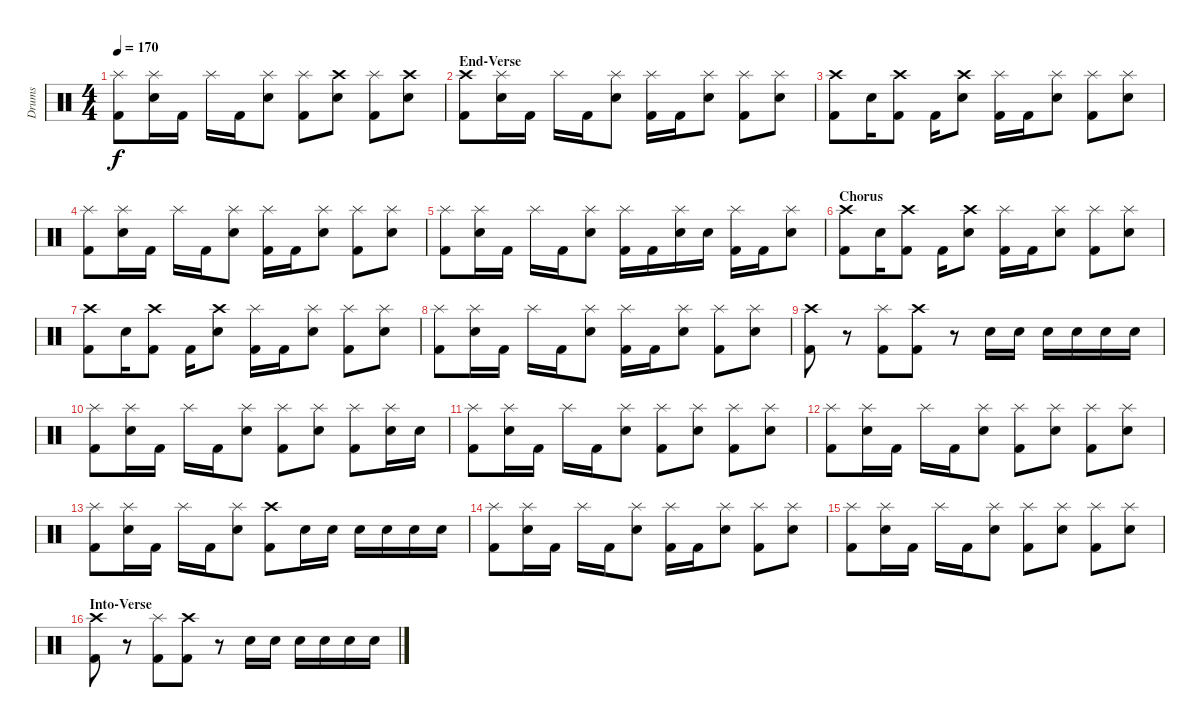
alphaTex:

\track ("Drums" "Drums") {instrument percussion}
\staff {score}
\articulation defaults
\ts (4 4)
\tempo 170
\clef neutral
\ks c
("Splash (hit)" "Kick (hit) 2").8{dy f} ("Splash (hit)" "Electric Snare (hit)").16 "Kick (hit) 2".16 "Splash (hit)".16 "Kick (hit) 2".16 ("Splash (hit)" "Electric Snare (hit)").8 ("Splash (hit)" "Kick (hit) 2").8 ("Crash high (hit)" "Electric Snare (hit)").8 ("Splash (hit)" "Kick (hit) 2").8 ("Crash high (hit)" "Electric Snare (hit)").8 |
\section ("" "End-Verse")
("Crash high (hit)" "Kick (hit) 2").8 ("Splash (hit)" "Electric Snare (hit)").16 "Kick (hit) 2".16 "Splash (hit)".16 "Kick (hit) 2".16 ("Splash (hit)" "Electric Snare (hit)").8 ("Splash (hit)" "Kick (hit) 2").16 "Kick (hit) 2".16 ("Splash (hit)" "Electric Snare (hit)").8 ("Splash (hit)" "Kick (hit) 2").8 ("Splash (hit)" "Electric Snare (hit)").8 |
("Crash high (hit)" "Kick (hit) 2").8 "Electric Snare (hit)".16 ("Crash high (hit)" "Kick (hit) 2").8 "Kick (hit) 2".16 ("Crash high (hit)" "Electric Snare (hit)").8 ("Splash (hit)" "Kick (hit) 2").16 "Kick (hit) 2".16 ("Splash (hit)" "Electric Snare (hit)").8 ("Splash (hit)" "Kick (hit) 2").8 ("Splash (hit)" "Electric Snare (hit)").8 |
("Splash (hit)" "Kick (hit) 2").8 ("Splash (hit)" "Electric Snare (hit)").16 "Kick (hit) 2".16 "Splash (hit)".16 "Kick (hit) 2".16 ("Splash (hit)" "Electric Snare (hit)").8 ("Splash (hit)" "Kick (hit) 2").16 "Kick (hit) 2".16 ("Splash (hit)" "Electric Snare (hit)").8 ("Splash (hit)" "Kick (hit) 2").8 ("Splash (hit)" "Electric Snare (hit)").8 |
("Splash (hit)" "Kick (hit) 2").8 ("Splash (hit)" "Electric Snare (hit)").16 "Kick (hit) 2".16 "Splash (hit)".16 "Kick (hit) 2".16 ("Splash (hit)" "Electric Snare (hit)").8 ("Splash (hit)" "Kick (hit) 2").16 "Kick (hit) 2".16 ("Splash (hit)" "Electric Snare (hit)").16 "Electric Snare (hit)".16 ("Splash (hit)" "Kick (hit) 2").16 "Kick (hit) 2".16 ("Splash (hit)" "Electric Snare (hit)").8 |
\section ("" "Chorus")
("Crash high (hit)" "Kick (hit) 2").8 "Electric Snare (hit)".16 ("Crash high (hit)" "Kick (hit) 2").8 "Kick (hit) 2".16 ("Crash high (hit)" "Electric Snare (hit)").8 ("Splash (hit)" "Kick (hit) 2").16 "Kick (hit) 2".16 ("Splash (hit)" "Electric Snare (hit)").8 ("Splash (hit)" "Kick (hit) 2").8 ("Splash (hit)" "Electric Snare (hit)").8 |
("Crash high (hit)" "Kick (hit) 2").8 "Electric Snare (hit)".16 ("Crash high (hit)" "Kick (hit) 2").8 "Kick (hit) 2".16 ("Crash high (hit)" "Electric Snare (hit)").8 ("Splash (hit)" "Kick (hit) 2").16 "Kick (hit) 2".16 ("Splash (hit)" "Electric Snare (hit)").8 ("Splash (hit)" "Kick (hit) 2").8 ("Splash (hit)" "Electric Snare (hit)").8 |
("Splash (hit)" "Kick (hit) 2").8 ("Splash (hit)" "Electric Snare (hit)").16 "Kick (hit) 2".16 "Splash (hit)".16 "Kick (hit) 2".16 ("Splash (hit)" "Electric Snare (hit)").8 ("Splash (hit)" "Kick (hit) 2").16 "Kick (hit) 2".16 ("Splash (hit)" "Electric Snare (hit)").8 ("Splash (hit)" "Kick (hit) 2").8 ("Splash (hit)" "Electric Snare (hit)").8 |
("Crash high (hit)" "Kick (hit) 2").8 r.8 ("Splash (hit)" "Kick (hit) 2").8 ("Crash high (hit)" "Kick (hit) 2").8 r.8 "Electric Snare (hit)".16 "Electric Snare (hit)".16 "Electric Snare (hit)".16 "Electric Snare (hit)".16 "Electric Snare (hit)".16 "Electric Snare (hit)".16 |
("Splash (hit)" "Kick (hit) 2").8 ("Splash (hit)" "Electric Snare (hit)").16 "Kick (hit) 2".16 "Splash (hit)".16 "Kick (hit) 2".16 ("Splash (hit)" "Electric Snare (hit)").8 ("Splash (hit)" "Kick (hit) 2").8 ("Splash (hit)" "Electric Snare (hit)").8 ("Splash (hit)" "Kick (hit) 2").8 ("Splash (hit)" "Electric Snare (hit)").16 "Electric Snare (hit)".16 |
("Splash (hit)" "Kick (hit) 2").8 ("Splash (hit)" "Electric Snare (hit)").16 "Kick (hit) 2".16 "Splash (hit)".16 "Kick (hit) 2".16 ("Splash (hit)" "Electric Snare (hit)").8 ("Splash (hit)" "Kick (hit) 2").8 ("Splash (hit)" "Electric Snare (hit)").8 ("Splash (hit)" "Kick (hit) 2").8 ("Splash (hit)" "Electric Snare (hit)").8 |
("Splash (hit)" "Kick (hit) 2").8 ("Splash (hit)" "Electric Snare (hit)").16 "Kick (hit) 2".16 "Splash (hit)".16 "Kick (hit) 2".16 ("Splash (hit)" "Electric Snare (hit)").8 ("Splash (hit)" "Kick (hit) 2").8 ("Splash (hit)" "Electric Snare (hit)").8 ("Splash (hit)" "Kick (hit) 2").8 ("Splash (hit)" "Electric Snare (hit)").8 |
("Splash (hit)" "Kick (hit) 2").8 ("Splash (hit)" "Electric Snare (hit)").16 "Kick (hit) 2".16 "Splash (hit)".16 "Kick (hit) 2".16 ("Splash (hit)" "Electric Snare (hit)").8 ("Crash high (hit)" "Kick (hit) 2").8 "Electric Snare (hit)".16 "Electric Snare (hit)".16 "Electric Snare (hit)".16 "Electric Snare (hit)".16 "Electric Snare (hit)".16 "Electric Snare (hit)".16 |
("Splash (hit)" "Kick (hit) 2").8 ("Splash (hit)" "Electric Snare (hit)").16 "Kick (hit) 2".16 "Splash (hit)".16 "Kick (hit) 2".16 ("Splash (hit)" "Electric Snare (hit)").8 ("Splash (hit)" "Kick (hit) 2").16 "Kick (hit) 2".16 ("Splash (hit)" "Electric Snare (hit)").8 ("Splash (hit)" "Kick (hit) 2").8 ("Splash (hit)" "Electric Snare (hit)").8 |
("Splash (hit)" "Kick (hit) 2").8 ("Splash (hit)" "Electric Snare (hit)").16 "Kick (hit) 2".16 "Splash (hit)".16 "Kick (hit) 2".16 ("Splash (hit)" "Electric Snare (hit)").8 ("Splash (hit)" "Kick (hit) 2").8 ("Splash (hit)" "Electric Snare (hit)").8 ("Splash (hit)" "Kick (hit) 2").8 ("Splash (hit)" "Electric Snare (hit)").8 |
\section ("" "Into-Verse")
("Crash high (hit)" "Kick (hit) 2").8 r.8 ("Splash (hit)" "Kick (hit) 2").8 ("Crash high (hit)" "Kick (hit) 2").8 r.8 "Electric Snare (hit)".16 "Electric Snare (hit)".16 "Electric Snare (hit)".16 "Electric Snare (hit)".16 "Electric Snare (hit)".16 "Electric Snare (hit)".16
